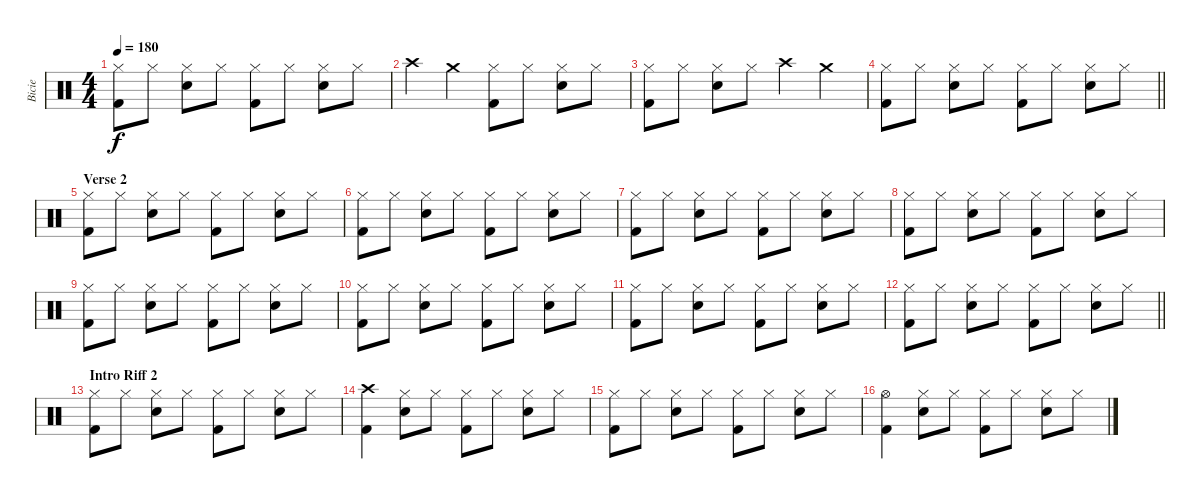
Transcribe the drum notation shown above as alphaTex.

\track ("Bicie" "Bicie") {instrument percussion}
\staff {score}
\articulation defaults
\ts (4 4)
\tempo 180
\clef neutral
\ks c
("Hi-Hat (closed)" "Kick (hit) 2").8{dy f} "Hi-Hat (closed)".8 ("Hi-Hat (closed)" "Snare (hit) 2").8 "Hi-Hat (closed)".8 ("Hi-Hat (closed)" "Kick (hit) 2").8 "Hi-Hat (closed)".8 ("Hi-Hat (closed)" "Snare (hit) 2").8 "Hi-Hat (closed)".8 |
"Crash high (hit)".4 "Crash medium (hit)".4 ("Hi-Hat (closed)" "Kick (hit) 2").8 "Hi-Hat (closed)".8 ("Hi-Hat (closed)" "Snare (hit) 2").8 "Hi-Hat (closed)".8 |
("Hi-Hat (closed)" "Kick (hit) 2").8 "Hi-Hat (closed)".8 ("Hi-Hat (closed)" "Snare (hit) 2").8 "Hi-Hat (closed)".8 "Crash high (hit)".4 "Crash medium (hit)".4 |
\barLineRight lightlight
("Hi-Hat (closed)" "Kick (hit) 2").8 "Hi-Hat (closed)".8 ("Hi-Hat (closed)" "Snare (hit) 2").8 "Hi-Hat (closed)".8 ("Hi-Hat (closed)" "Kick (hit) 2").8 "Hi-Hat (closed)".8 ("Hi-Hat (closed)" "Snare (hit) 2").8 "Hi-Hat (closed)".8 |
\section ("" "Verse 2")
("Hi-Hat (closed)" "Kick (hit) 2").8 "Hi-Hat (closed)".8 ("Hi-Hat (closed)" "Snare (hit) 2").8 "Hi-Hat (closed)".8 ("Hi-Hat (closed)" "Kick (hit) 2").8 "Hi-Hat (closed)".8 ("Hi-Hat (closed)" "Snare (hit) 2").8 "Hi-Hat (closed)".8 |
("Hi-Hat (closed)" "Kick (hit) 2").8 "Hi-Hat (closed)".8 ("Hi-Hat (closed)" "Snare (hit) 2").8 "Hi-Hat (closed)".8 ("Hi-Hat (closed)" "Kick (hit) 2").8 "Hi-Hat (closed)".8 ("Hi-Hat (closed)" "Snare (hit) 2").8 "Hi-Hat (closed)".8 |
("Hi-Hat (closed)" "Kick (hit) 2").8 "Hi-Hat (closed)".8 ("Hi-Hat (closed)" "Snare (hit) 2").8 "Hi-Hat (closed)".8 ("Hi-Hat (closed)" "Kick (hit) 2").8 "Hi-Hat (closed)".8 ("Hi-Hat (closed)" "Snare (hit) 2").8 "Hi-Hat (closed)".8 |
("Hi-Hat (closed)" "Kick (hit) 2").8 "Hi-Hat (closed)".8 ("Hi-Hat (closed)" "Snare (hit) 2").8 "Hi-Hat (closed)".8 ("Hi-Hat (closed)" "Kick (hit) 2").8 "Hi-Hat (closed)".8 ("Hi-Hat (closed)" "Snare (hit) 2").8 "Hi-Hat (closed)".8 |
("Hi-Hat (closed)" "Kick (hit) 2").8 "Hi-Hat (closed)".8 ("Hi-Hat (closed)" "Snare (hit) 2").8 "Hi-Hat (closed)".8 ("Hi-Hat (closed)" "Kick (hit) 2").8 "Hi-Hat (closed)".8 ("Hi-Hat (closed)" "Snare (hit) 2").8 "Hi-Hat (closed)".8 |
("Hi-Hat (closed)" "Kick (hit) 2").8 "Hi-Hat (closed)".8 ("Hi-Hat (closed)" "Snare (hit) 2").8 "Hi-Hat (closed)".8 ("Hi-Hat (closed)" "Kick (hit) 2").8 "Hi-Hat (closed)".8 ("Hi-Hat (closed)" "Snare (hit) 2").8 "Hi-Hat (closed)".8 |
("Hi-Hat (closed)" "Kick (hit) 2").8 "Hi-Hat (closed)".8 ("Hi-Hat (closed)" "Snare (hit) 2").8 "Hi-Hat (closed)".8 ("Hi-Hat (closed)" "Kick (hit) 2").8 "Hi-Hat (closed)".8 ("Hi-Hat (closed)" "Snare (hit) 2").8 "Hi-Hat (closed)".8 |
\barLineRight lightlight
("Hi-Hat (closed)" "Kick (hit) 2").8 "Hi-Hat (closed)".8 ("Hi-Hat (closed)" "Snare (hit) 2").8 "Hi-Hat (closed)".8 ("Hi-Hat (closed)" "Kick (hit) 2").8 "Hi-Hat (closed)".8 ("Hi-Hat (closed)" "Snare (hit) 2").8 "Hi-Hat (closed)".8 |
\section ("" "Intro Riff 2")
("Hi-Hat (closed)" "Kick (hit) 2").8 "Hi-Hat (closed)".8 ("Hi-Hat (closed)" "Snare (hit) 2").8 "Hi-Hat (closed)".8 ("Hi-Hat (closed)" "Kick (hit) 2").8 "Hi-Hat (closed)".8 ("Hi-Hat (closed)" "Snare (hit) 2").8 "Hi-Hat (closed)".8 |
("Kick (hit) 2" "Crash high (hit)").4 ("Hi-Hat (closed)" "Snare (hit) 2").8 "Hi-Hat (closed)".8 ("Hi-Hat (closed)" "Kick (hit) 2").8 "Hi-Hat (closed)".8 ("Hi-Hat (closed)" "Snare (hit) 2").8 "Hi-Hat (closed)".8 |
("Hi-Hat (closed)" "Kick (hit) 2").8 "Hi-Hat (closed)".8 ("Hi-Hat (closed)" "Snare (hit) 2").8 "Hi-Hat (closed)".8 ("Hi-Hat (closed)" "Kick (hit) 2").8 "Hi-Hat (closed)".8 ("Hi-Hat (closed)" "Snare (hit) 2").8 "Hi-Hat (closed)".8 |
("Kick (hit) 2" "Hi-Hat (open)").4 ("Hi-Hat (closed)" "Snare (hit) 2").8 "Hi-Hat (closed)".8 ("Hi-Hat (closed)" "Kick (hit) 2").8 "Hi-Hat (closed)".8 ("Hi-Hat (closed)" "Snare (hit) 2").8 "Hi-Hat (closed)".8
